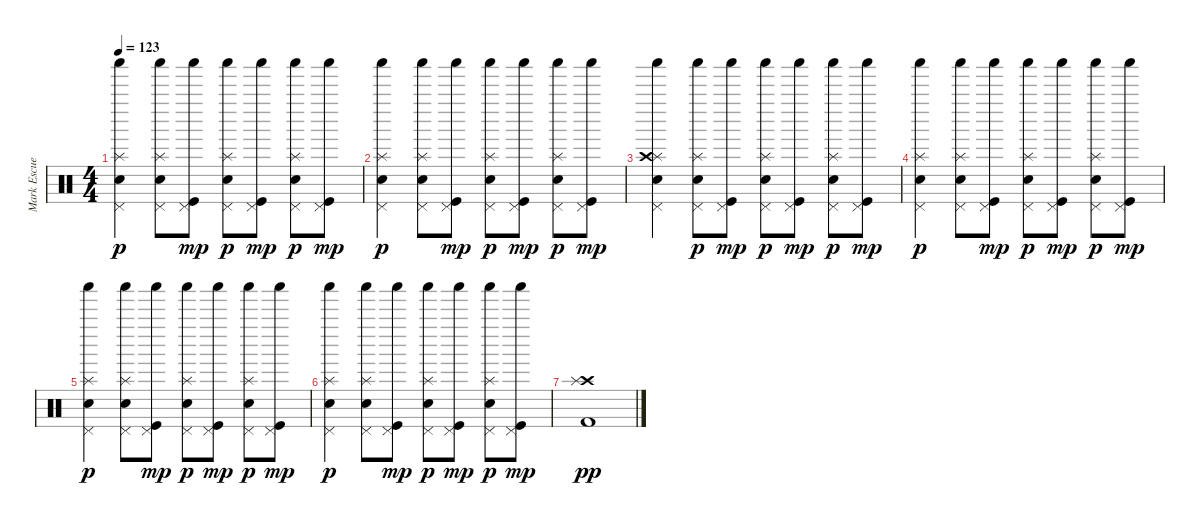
\track ("Mark Escueta - Drums" "Mark Escue") {instrument percussion}
\staff {score}
\articulation defaults
\ts (4 4)
\tempo 123
\clef neutral
\ks c
("Shaker (hit)" "Pedal Hi-Hat (hit)" "Electric Snare (hit)" "Splash (hit)").4{dy p} ("Shaker (hit)" "Pedal Hi-Hat (hit)" "Electric Snare (hit)" "Splash (hit)").8 ("Shaker (hit)" "Pedal Hi-Hat (hit)" "Kick (hit)").8{dy mp} ("Shaker (hit)" "Pedal Hi-Hat (hit)" "Electric Snare (hit)" "Splash (hit)").8{dy p} ("Shaker (hit)" "Pedal Hi-Hat (hit)" "Kick (hit)").8{dy mp} ("Shaker (hit)" "Pedal Hi-Hat (hit)" "Electric Snare (hit)" "Splash (hit)").8{dy p} ("Shaker (hit)" "Pedal Hi-Hat (hit)" "Kick (hit)").8{dy mp} |
("Shaker (hit)" "Pedal Hi-Hat (hit)" "Electric Snare (hit)" "Splash (hit)").4{dy p} ("Shaker (hit)" "Pedal Hi-Hat (hit)" "Electric Snare (hit)" "Splash (hit)").8 ("Shaker (hit)" "Pedal Hi-Hat (hit)" "Kick (hit)").8{dy mp} ("Shaker (hit)" "Pedal Hi-Hat (hit)" "Electric Snare (hit)" "Splash (hit)").8{dy p} ("Shaker (hit)" "Pedal Hi-Hat (hit)" "Kick (hit)").8{dy mp} ("Shaker (hit)" "Pedal Hi-Hat (hit)" "Electric Snare (hit)" "Splash (hit)").8{dy p} ("Shaker (hit)" "Pedal Hi-Hat (hit)" "Kick (hit)").8{dy mp} |
("Shaker (hit)" "Pedal Hi-Hat (hit)" "Electric Snare (hit)" "Splash (hit)" "Crash high (hit)").4 ("Shaker (hit)" "Pedal Hi-Hat (hit)" "Electric Snare (hit)" "Splash (hit)").8{dy p} ("Shaker (hit)" "Pedal Hi-Hat (hit)" "Kick (hit)").8{dy mp} ("Shaker (hit)" "Pedal Hi-Hat (hit)" "Electric Snare (hit)" "Splash (hit)").8{dy p} ("Shaker (hit)" "Pedal Hi-Hat (hit)" "Kick (hit)").8{dy mp} ("Shaker (hit)" "Pedal Hi-Hat (hit)" "Electric Snare (hit)" "Splash (hit)").8{dy p} ("Shaker (hit)" "Pedal Hi-Hat (hit)" "Kick (hit)").8{dy mp} |
("Shaker (hit)" "Pedal Hi-Hat (hit)" "Electric Snare (hit)" "Splash (hit)").4{dy p} ("Shaker (hit)" "Pedal Hi-Hat (hit)" "Electric Snare (hit)" "Splash (hit)").8 ("Shaker (hit)" "Pedal Hi-Hat (hit)" "Kick (hit)").8{dy mp} ("Shaker (hit)" "Pedal Hi-Hat (hit)" "Electric Snare (hit)" "Splash (hit)").8{dy p} ("Shaker (hit)" "Pedal Hi-Hat (hit)" "Kick (hit)").8{dy mp} ("Shaker (hit)" "Pedal Hi-Hat (hit)" "Electric Snare (hit)" "Splash (hit)").8{dy p} ("Shaker (hit)" "Pedal Hi-Hat (hit)" "Kick (hit)").8{dy mp} |
("Shaker (hit)" "Pedal Hi-Hat (hit)" "Electric Snare (hit)" "Splash (hit)").4{dy p} ("Shaker (hit)" "Pedal Hi-Hat (hit)" "Electric Snare (hit)" "Splash (hit)").8 ("Shaker (hit)" "Pedal Hi-Hat (hit)" "Kick (hit)").8{dy mp} ("Shaker (hit)" "Pedal Hi-Hat (hit)" "Electric Snare (hit)" "Splash (hit)").8{dy p} ("Shaker (hit)" "Pedal Hi-Hat (hit)" "Kick (hit)").8{dy mp} ("Shaker (hit)" "Pedal Hi-Hat (hit)" "Electric Snare (hit)" "Splash (hit)").8{dy p} ("Shaker (hit)" "Pedal Hi-Hat (hit)" "Kick (hit)").8{dy mp} |
("Shaker (hit)" "Pedal Hi-Hat (hit)" "Electric Snare (hit)" "Splash (hit)").4{dy p} ("Shaker (hit)" "Pedal Hi-Hat (hit)" "Electric Snare (hit)" "Splash (hit)").8 ("Shaker (hit)" "Pedal Hi-Hat (hit)" "Kick (hit)").8{dy mp} ("Shaker (hit)" "Pedal Hi-Hat (hit)" "Electric Snare (hit)" "Splash (hit)").8{dy p} ("Shaker (hit)" "Pedal Hi-Hat (hit)" "Kick (hit)").8{dy mp} ("Shaker (hit)" "Pedal Hi-Hat (hit)" "Electric Snare (hit)" "Splash (hit)").8{dy p} ("Shaker (hit)" "Pedal Hi-Hat (hit)" "Kick (hit)").8{dy mp} |
("Crash high (hit)" "Kick (hit) 2" "Splash (hit)").1{dy pp}
